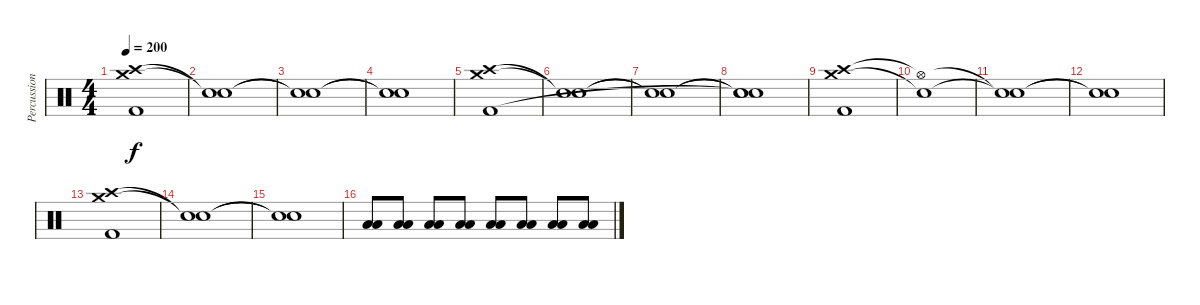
\track ("Percussion" "Percussion") {instrument percussion}
\staff {score}
\articulation defaults
\ts (4 4)
\tempo 200
\clef neutral
\ks c
("Crash high (hit)" "Crash medium (hit)" "Kick (hit) 2").1{dy f} |
("Snare (hit)"{t} "Snare (hit)"{t}).1 |
("Snare (hit)"{t} "Snare (hit)"{t}).1 |
("Snare (hit)"{t} "Snare (hit)"{t}).1 |
("Crash high (hit)" "Crash medium (hit)" "Kick (hit) 2").1 |
("Snare (hit)"{t} "Snare (hit)"{t}).1 |
("Snare (hit)"{t} "Snare (hit)"{t}).1 |
("Snare (hit)"{t} "Snare (hit)"{t} "Snare (hit)"{t}).1 |
("Crash high (hit)" "Crash medium (hit)" "Kick (hit) 2").1 |
("Hi-Hat (open)"{t} "Snare (hit)"{t}).1 |
("Snare (hit)"{t} "Snare (hit)"{t}).1 |
("Snare (hit)"{t} "Snare (hit)"{t}).1 |
("Crash high (hit)" "Crash medium (hit)" "Kick (hit) 2").1 |
("Snare (hit)"{t} "Snare (hit)"{t}).1 |
("Snare (hit)"{t} "Snare (hit)"{t}).1 |
("Low Tom (hit)" "Low Floor Tom (hit)").8 ("Low Tom (hit)" "Low Floor Tom (hit)").8 ("Low Tom (hit)" "Low Floor Tom (hit)").8 ("Low Tom (hit)" "Low Floor Tom (hit)").8 ("Low Tom (hit)" "Low Floor Tom (hit)").8 ("Low Tom (hit)" "Low Floor Tom (hit)").8 ("Low Tom (hit)" "Low Floor Tom (hit)").8 ("Low Tom (hit)" "Low Floor Tom (hit)").8
